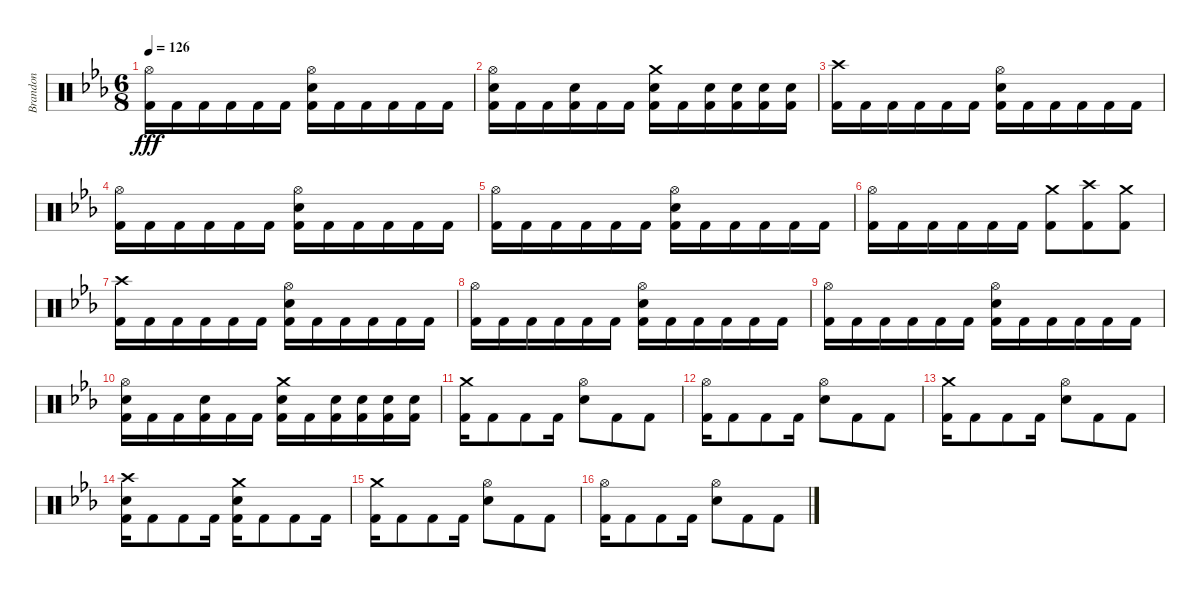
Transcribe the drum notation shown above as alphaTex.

\track ("Brandon" "Brandon") {instrument percussion}
\staff {score}
\articulation defaults
\ts (6 8)
\tempo 126
\clef neutral
\ks cminor
("Hi-Hat (open)" "Kick (hit) 2").16{dy fff} "Kick (hit) 2".16 "Kick (hit) 2".16 "Kick (hit) 2".16 "Kick (hit) 2".16 "Kick (hit) 2".16 ("Hi-Hat (open)" "Electric Snare (hit)" "Kick (hit) 2").16 "Kick (hit) 2".16 "Kick (hit) 2".16 "Kick (hit) 2".16 "Kick (hit) 2".16 "Kick (hit) 2".16 |
("Hi-Hat (open)" "Electric Snare (hit)" "Kick (hit) 2").16 "Kick (hit) 2".16 "Kick (hit) 2".16 ("Electric Snare (hit)" "Kick (hit) 2").16 "Kick (hit) 2".16 "Kick (hit) 2".16 ("Crash medium (hit)" "Electric Snare (hit)" "Kick (hit) 2").16 "Kick (hit) 2".16 ("Electric Snare (hit)" "Kick (hit) 2").16 ("Electric Snare (hit)" "Kick (hit) 2").16 ("Electric Snare (hit)" "Kick (hit) 2").16 ("Electric Snare (hit)" "Kick (hit) 2").16 |
("Crash high (hit)" "Kick (hit) 2").16 "Kick (hit) 2".16 "Kick (hit) 2".16 "Kick (hit) 2".16 "Kick (hit) 2".16 "Kick (hit) 2".16 ("Hi-Hat (open)" "Electric Snare (hit)" "Kick (hit) 2").16 "Kick (hit) 2".16 "Kick (hit) 2".16 "Kick (hit) 2".16 "Kick (hit) 2".16 "Kick (hit) 2".16 |
("Hi-Hat (open)" "Kick (hit) 2").16 "Kick (hit) 2".16 "Kick (hit) 2".16 "Kick (hit) 2".16 "Kick (hit) 2".16 "Kick (hit) 2".16 ("Hi-Hat (open)" "Electric Snare (hit)" "Kick (hit) 2").16 "Kick (hit) 2".16 "Kick (hit) 2".16 "Kick (hit) 2".16 "Kick (hit) 2".16 "Kick (hit) 2".16 |
("Hi-Hat (open)" "Kick (hit) 2").16 "Kick (hit) 2".16 "Kick (hit) 2".16 "Kick (hit) 2".16 "Kick (hit) 2".16 "Kick (hit) 2".16 ("Hi-Hat (open)" "Electric Snare (hit)" "Kick (hit) 2").16 "Kick (hit) 2".16 "Kick (hit) 2".16 "Kick (hit) 2".16 "Kick (hit) 2".16 "Kick (hit) 2".16 |
("Hi-Hat (open)" "Kick (hit) 2").16 "Kick (hit) 2".16 "Kick (hit) 2".16 "Kick (hit) 2".16 "Kick (hit) 2".16 "Kick (hit) 2".16 ("Crash medium (hit)" "Kick (hit) 2").8 ("Crash high (hit)" "Kick (hit) 2").8 ("Crash medium (hit)" "Kick (hit) 2").8 |
("Crash high (hit)" "Kick (hit) 2").16 "Kick (hit) 2".16 "Kick (hit) 2".16 "Kick (hit) 2".16 "Kick (hit) 2".16 "Kick (hit) 2".16 ("Hi-Hat (open)" "Electric Snare (hit)" "Kick (hit) 2").16 "Kick (hit) 2".16 "Kick (hit) 2".16 "Kick (hit) 2".16 "Kick (hit) 2".16 "Kick (hit) 2".16 |
("Hi-Hat (open)" "Kick (hit) 2").16 "Kick (hit) 2".16 "Kick (hit) 2".16 "Kick (hit) 2".16 "Kick (hit) 2".16 "Kick (hit) 2".16 ("Hi-Hat (open)" "Electric Snare (hit)" "Kick (hit) 2").16 "Kick (hit) 2".16 "Kick (hit) 2".16 "Kick (hit) 2".16 "Kick (hit) 2".16 "Kick (hit) 2".16 |
("Hi-Hat (open)" "Kick (hit) 2").16 "Kick (hit) 2".16 "Kick (hit) 2".16 "Kick (hit) 2".16 "Kick (hit) 2".16 "Kick (hit) 2".16 ("Hi-Hat (open)" "Electric Snare (hit)" "Kick (hit) 2").16 "Kick (hit) 2".16 "Kick (hit) 2".16 "Kick (hit) 2".16 "Kick (hit) 2".16 "Kick (hit) 2".16 |
("Hi-Hat (open)" "Electric Snare (hit)" "Kick (hit) 2").16 "Kick (hit) 2".16 "Kick (hit) 2".16 ("Electric Snare (hit)" "Kick (hit) 2").16 "Kick (hit) 2".16 "Kick (hit) 2".16 ("Crash medium (hit)" "Electric Snare (hit)" "Kick (hit) 2").16 "Kick (hit) 2".16 ("Electric Snare (hit)" "Kick (hit) 2").16 ("Electric Snare (hit)" "Kick (hit) 2").16 ("Electric Snare (hit)" "Kick (hit) 2").16 ("Electric Snare (hit)" "Kick (hit) 2").16 |
("Crash medium (hit)" "Kick (hit) 2").16 "Kick (hit) 2".8 "Kick (hit) 2".8 "Kick (hit) 2".16 ("Hi-Hat (open)" "Electric Snare (hit)").8 "Kick (hit) 2".8 "Kick (hit) 2".8 |
("Hi-Hat (open)" "Kick (hit) 2").16 "Kick (hit) 2".8 "Kick (hit) 2".8 "Kick (hit) 2".16 ("Hi-Hat (open)" "Electric Snare (hit)").8 "Kick (hit) 2".8 "Kick (hit) 2".8 |
("Crash medium (hit)" "Kick (hit) 2").16 "Kick (hit) 2".8 "Kick (hit) 2".8 "Kick (hit) 2".16 ("Hi-Hat (open)" "Electric Snare (hit)").8 "Kick (hit) 2".8 "Kick (hit) 2".8 |
("Crash high (hit)" "Electric Snare (hit)" "Kick (hit) 2").16 "Kick (hit) 2".8 "Kick (hit) 2".8 "Kick (hit) 2".16 ("Crash medium (hit)" "Electric Snare (hit)" "Kick (hit) 2").16 "Kick (hit) 2".8 "Kick (hit) 2".8 "Kick (hit) 2".16 |
("Crash medium (hit)" "Kick (hit) 2").16 "Kick (hit) 2".8 "Kick (hit) 2".8 "Kick (hit) 2".16 ("Hi-Hat (open)" "Electric Snare (hit)").8 "Kick (hit) 2".8 "Kick (hit) 2".8 |
("Hi-Hat (open)" "Kick (hit) 2").16 "Kick (hit) 2".8 "Kick (hit) 2".8 "Kick (hit) 2".16 ("Hi-Hat (open)" "Electric Snare (hit)").8 "Kick (hit) 2".8 "Kick (hit) 2".8
